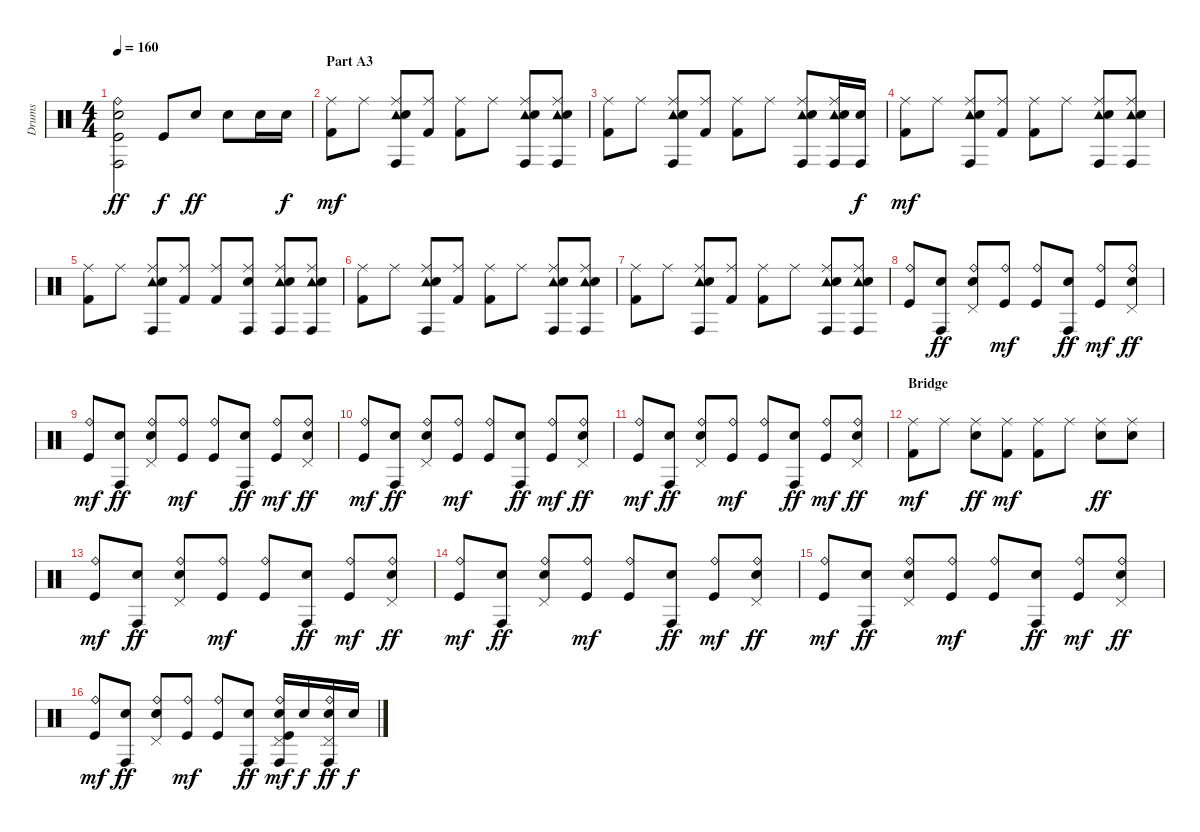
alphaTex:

\track ("Drums" "Drums") {instrument percussion}
\staff {score}
\articulation defaults
\ts (4 4)
\tempo 160
\clef neutral
\ks c
("Ride (bell)" "Conga high (hit)" "Electric Snare (hit)" "Kick (hit)").2{dy ff} "Kick (hit)".8{dy f} "Electric Snare (hit)".8{dy ff} "Electric Snare (hit)".8 "Electric Snare (hit)".16 "Electric Snare (hit)".16{dy f} |
\section ("" "Part A3")
("Ride (middle)" "Kick (hit) 2").8{dy mf} "Ride (middle)".8 ("Ride (middle)" "Tambourine (hit)" "Conga high (hit)" "Electric Snare (hit)").8 ("Ride (middle)" "Kick (hit) 2").8 ("Ride (middle)" "Kick (hit) 2").8 "Ride (middle)".8 ("Ride (middle)" "Tambourine (hit)" "Conga high (hit)" "Electric Snare (hit)").8 ("Ride (middle)" "Tambourine (hit)" "Conga high (hit)" "Electric Snare (hit)").8 |
("Ride (middle)" "Kick (hit) 2").8 "Ride (middle)".8 ("Ride (middle)" "Tambourine (hit)" "Conga high (hit)" "Electric Snare (hit)").8 ("Ride (middle)" "Kick (hit) 2").8 ("Ride (middle)" "Kick (hit) 2").8 "Ride (middle)".8 ("Ride (middle)" "Tambourine (hit)" "Conga high (hit)" "Electric Snare (hit)").8 ("Ride (middle)" "Tambourine (hit)" "Conga high (hit)" "Electric Snare (hit)").16 ("Conga high (hit)" "Electric Snare (hit)").16{dy f} |
("Ride (middle)" "Kick (hit) 2").8{dy mf} "Ride (middle)".8 ("Ride (middle)" "Tambourine (hit)" "Conga high (hit)" "Electric Snare (hit)").8 ("Ride (middle)" "Kick (hit) 2").8 ("Ride (middle)" "Kick (hit) 2").8 "Ride (middle)".8 ("Ride (middle)" "Tambourine (hit)" "Conga high (hit)" "Electric Snare (hit)").8 ("Ride (middle)" "Tambourine (hit)" "Conga high (hit)" "Electric Snare (hit)").8 |
("Ride (middle)" "Kick (hit) 2").8 "Ride (middle)".8 ("Ride (middle)" "Tambourine (hit)" "Conga high (hit)" "Electric Snare (hit)").8 ("Ride (middle)" "Kick (hit) 2").8 ("Ride (middle)" "Kick (hit) 2").8 ("Ride (middle)" "Conga high (hit)" "Electric Snare (hit)").8 ("Ride (middle)" "Tambourine (hit)" "Conga high (hit)" "Electric Snare (hit)").8 ("Ride (middle)" "Tambourine (hit)" "Conga high (hit)" "Electric Snare (hit)").8 |
("Ride (middle)" "Kick (hit) 2").8 "Ride (middle)".8 ("Ride (middle)" "Tambourine (hit)" "Conga high (hit)" "Electric Snare (hit)").8 ("Ride (middle)" "Kick (hit) 2").8 ("Ride (middle)" "Kick (hit) 2").8 "Ride (middle)".8 ("Ride (middle)" "Tambourine (hit)" "Conga high (hit)" "Electric Snare (hit)").8 ("Ride (middle)" "Tambourine (hit)" "Conga high (hit)" "Electric Snare (hit)").8 |
("Ride (middle)" "Kick (hit) 2").8 "Ride (middle)".8 ("Ride (middle)" "Tambourine (hit)" "Conga high (hit)" "Electric Snare (hit)").8 ("Ride (middle)" "Kick (hit) 2").8 ("Ride (middle)" "Kick (hit) 2").8 "Ride (middle)".8 ("Ride (middle)" "Tambourine (hit)" "Conga high (hit)" "Electric Snare (hit)").8 ("Ride (middle)" "Tambourine (hit)" "Conga high (hit)" "Electric Snare (hit)").8 |
("Ride (bell)" "Kick (hit)").8 ("Conga high (hit)" "Electric Snare (hit)").8{dy ff} ("Ride (bell)" "Pedal Hi-Hat (hit)" "Electric Snare (hit)").8 ("Ride (bell)" "Kick (hit)").8{dy mf} ("Ride (bell)" "Kick (hit)").8 ("Conga high (hit)" "Electric Snare (hit)").8{dy ff} ("Ride (bell)" "Kick (hit)").8{dy mf} ("Ride (bell)" "Pedal Hi-Hat (hit)" "Electric Snare (hit)").8{dy ff} |
("Ride (bell)" "Kick (hit)").8{dy mf} ("Conga high (hit)" "Electric Snare (hit)").8{dy ff} ("Ride (bell)" "Pedal Hi-Hat (hit)" "Electric Snare (hit)").8 ("Ride (bell)" "Kick (hit)").8{dy mf} ("Ride (bell)" "Kick (hit)").8 ("Conga high (hit)" "Electric Snare (hit)").8{dy ff} ("Ride (bell)" "Kick (hit)").8{dy mf} ("Ride (bell)" "Pedal Hi-Hat (hit)" "Electric Snare (hit)").8{dy ff} |
("Ride (bell)" "Kick (hit)").8{dy mf} ("Conga high (hit)" "Electric Snare (hit)").8{dy ff} ("Ride (bell)" "Pedal Hi-Hat (hit)" "Electric Snare (hit)").8 ("Ride (bell)" "Kick (hit)").8{dy mf} ("Ride (bell)" "Kick (hit)").8 ("Conga high (hit)" "Electric Snare (hit)").8{dy ff} ("Ride (bell)" "Kick (hit)").8{dy mf} ("Ride (bell)" "Pedal Hi-Hat (hit)" "Electric Snare (hit)").8{dy ff} |
("Ride (bell)" "Kick (hit)").8{dy mf} ("Conga high (hit)" "Electric Snare (hit)").8{dy ff} ("Ride (bell)" "Pedal Hi-Hat (hit)" "Electric Snare (hit)").8 ("Ride (bell)" "Kick (hit)").8{dy mf} ("Ride (bell)" "Kick (hit)").8 ("Conga high (hit)" "Electric Snare (hit)").8{dy ff} ("Ride (bell)" "Kick (hit)").8{dy mf} ("Ride (bell)" "Pedal Hi-Hat (hit)" "Electric Snare (hit)").8{dy ff} |
\section ("" "Bridge")
("Ride (middle)" "Kick (hit) 2").8{dy mf} "Ride (middle)".8 ("Ride (middle)" "Electric Snare (hit)").8{dy ff} ("Ride (middle)" "Kick (hit) 2").8{dy mf} ("Ride (middle)" "Kick (hit) 2").8 "Ride (middle)".8 ("Ride (middle)" "Electric Snare (hit)").8{dy ff} ("Ride (middle)" "Electric Snare (hit)").8 |
("Ride (bell)" "Kick (hit)").8{dy mf} ("Conga high (hit)" "Electric Snare (hit)").8{dy ff} ("Ride (bell)" "Pedal Hi-Hat (hit)" "Electric Snare (hit)").8 ("Ride (bell)" "Kick (hit)").8{dy mf} ("Ride (bell)" "Kick (hit)").8 ("Conga high (hit)" "Electric Snare (hit)").8{dy ff} ("Ride (bell)" "Kick (hit)").8{dy mf} ("Ride (bell)" "Pedal Hi-Hat (hit)" "Electric Snare (hit)").8{dy ff} |
("Ride (bell)" "Kick (hit)").8{dy mf} ("Conga high (hit)" "Electric Snare (hit)").8{dy ff} ("Ride (bell)" "Pedal Hi-Hat (hit)" "Electric Snare (hit)").8 ("Ride (bell)" "Kick (hit)").8{dy mf} ("Ride (bell)" "Kick (hit)").8 ("Conga high (hit)" "Electric Snare (hit)").8{dy ff} ("Ride (bell)" "Kick (hit)").8{dy mf} ("Ride (bell)" "Pedal Hi-Hat (hit)" "Electric Snare (hit)").8{dy ff} |
("Ride (bell)" "Kick (hit)").8{dy mf} ("Conga high (hit)" "Electric Snare (hit)").8{dy ff} ("Ride (bell)" "Pedal Hi-Hat (hit)" "Electric Snare (hit)").8 ("Ride (bell)" "Kick (hit)").8{dy mf} ("Ride (bell)" "Kick (hit)").8 ("Conga high (hit)" "Electric Snare (hit)").8{dy ff} ("Ride (bell)" "Kick (hit)").8{dy mf} ("Ride (bell)" "Pedal Hi-Hat (hit)" "Electric Snare (hit)").8{dy ff} |
("Ride (bell)" "Kick (hit)").8{dy mf} ("Conga high (hit)" "Electric Snare (hit)").8{dy ff} ("Ride (bell)" "Pedal Hi-Hat (hit)" "Electric Snare (hit)").8 ("Ride (bell)" "Kick (hit)").8{dy mf} ("Ride (bell)" "Kick (hit)").8 ("Conga high (hit)" "Electric Snare (hit)").8{dy ff} ("Ride (bell)" "Pedal Hi-Hat (hit)" "Conga high (hit)" "Electric Snare (hit)" "Kick (hit)").16{dy mf} "Electric Snare (hit)".16{dy f} ("Ride (bell)" "Pedal Hi-Hat (hit)" "Conga high (hit)" "Electric Snare (hit)").16{dy ff} "Electric Snare (hit)".16{dy f}
